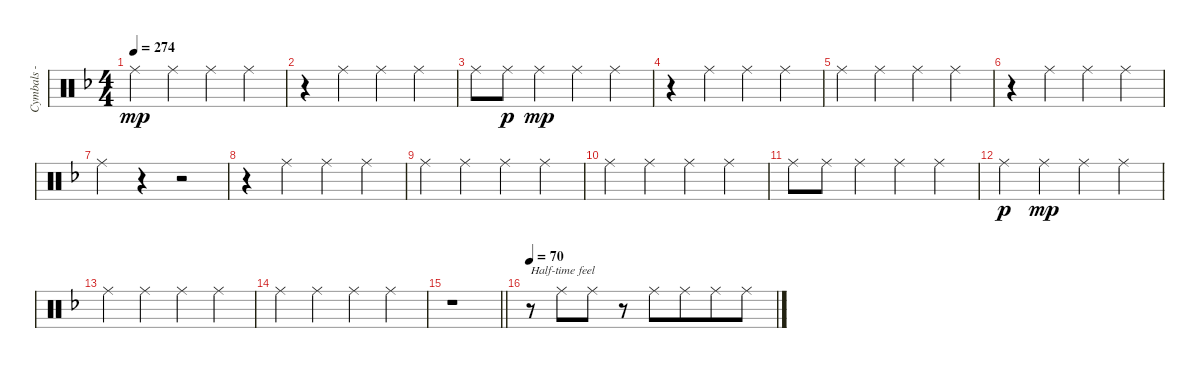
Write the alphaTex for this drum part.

\track ("Cymbals - ride" "Cymbals - ") {instrument percussion}
\staff {score}
\articulation defaults
\ts (4 4)
\tempo 274
\clef neutral
\ks dminor "Ride (middle)".4{dy mp} "Ride (middle)".4 "Ride (middle)".4 "Ride (middle)".4
|
r.4 "Ride (middle)".4 "Ride (middle)".4 "Ride (middle)".4 |
"Ride (middle)".8 "Ride (middle)".8{dy p} "Ride (middle)".4{dy mp} "Ride (middle)".4 "Ride (middle)".4 |
r.4 "Ride (middle)".4 "Ride (middle)".4 "Ride (middle)".4 |
"Ride (middle)".4 "Ride (middle)".4 "Ride (middle)".4 "Ride (middle)".4 |
r.4 "Ride (middle)".4 "Ride (middle)".4 "Ride (middle)".4 |
"Ride (middle)".4 r.4 r.2 |
r.4 "Ride (middle)".4 "Ride (middle)".4 "Ride (middle)".4 |
"Ride (middle)".4 "Ride (middle)".4 "Ride (middle)".4 "Ride (middle)".4 |
"Ride (middle)".4 "Ride (middle)".4 "Ride (middle)".4 "Ride (middle)".4 |
"Ride (middle)".8 "Ride (middle)".8 "Ride (middle)".4 "Ride (middle)".4 "Ride (middle)".4 |
"Ride (middle)".4{dy p} "Ride (middle)".4{dy mp} "Ride (middle)".4 "Ride (middle)".4 |
"Ride (middle)".4 "Ride (middle)".4 "Ride (middle)".4 "Ride (middle)".4 |
"Ride (middle)".4 "Ride (middle)".4 "Ride (middle)".4 "Ride (middle)".4 |
\barLineRight lightlight
r.1 |
\tempo 70
r.8{txt "Half-time feel"} "Ride (middle)".8{beam merge} "Ride (middle)".8 r.8 "Ride (middle)".8 "Ride (middle)".8{beam merge} "Ride (middle)".8 "Ride (middle)".8
